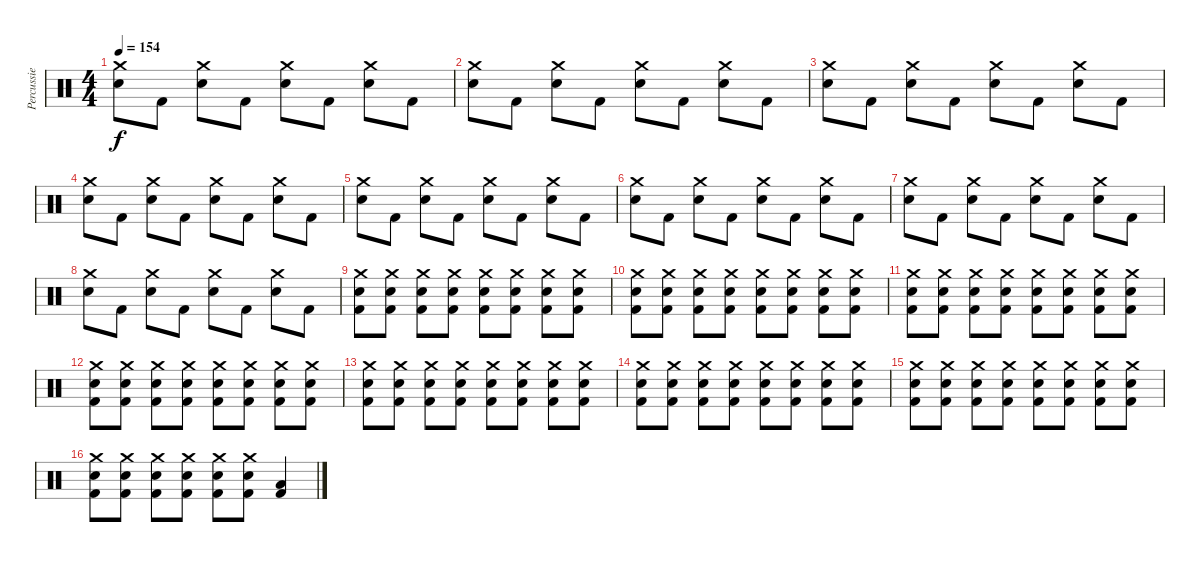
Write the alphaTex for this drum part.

\track ("Percussie" "Percussie") {instrument percussion}
\staff {score}
\articulation defaults
\ts (4 4)
\tempo 154
\clef neutral
\ks c
("Crash medium (hit)" "Snare (hit) 2").8{dy f} "Kick (hit) 2".8 ("Crash medium (hit)" "Snare (hit) 2").8 "Kick (hit) 2".8 ("Crash medium (hit)" "Snare (hit) 2").8 "Kick (hit) 2".8 ("Crash medium (hit)" "Snare (hit) 2").8 "Kick (hit) 2".8 |
("Crash medium (hit)" "Snare (hit) 2").8 "Kick (hit) 2".8 ("Crash medium (hit)" "Snare (hit) 2").8 "Kick (hit) 2".8 ("Crash medium (hit)" "Snare (hit) 2").8 "Kick (hit) 2".8 ("Crash medium (hit)" "Snare (hit) 2").8 "Kick (hit) 2".8 |
("Crash medium (hit)" "Snare (hit) 2").8 "Kick (hit) 2".8 ("Crash medium (hit)" "Snare (hit) 2").8 "Kick (hit) 2".8 ("Crash medium (hit)" "Snare (hit) 2").8 "Kick (hit) 2".8 ("Crash medium (hit)" "Snare (hit) 2").8 "Kick (hit) 2".8 |
("Crash medium (hit)" "Snare (hit) 2").8 "Kick (hit) 2".8 ("Crash medium (hit)" "Snare (hit) 2").8 "Kick (hit) 2".8 ("Crash medium (hit)" "Snare (hit) 2").8 "Kick (hit) 2".8 ("Crash medium (hit)" "Snare (hit) 2").8 "Kick (hit) 2".8 |
("Crash medium (hit)" "Snare (hit) 2").8 "Kick (hit) 2".8 ("Crash medium (hit)" "Snare (hit) 2").8 "Kick (hit) 2".8 ("Crash medium (hit)" "Snare (hit) 2").8 "Kick (hit) 2".8 ("Crash medium (hit)" "Snare (hit) 2").8 "Kick (hit) 2".8 |
("Crash medium (hit)" "Snare (hit) 2").8 "Kick (hit) 2".8 ("Crash medium (hit)" "Snare (hit) 2").8 "Kick (hit) 2".8 ("Crash medium (hit)" "Snare (hit) 2").8 "Kick (hit) 2".8 ("Crash medium (hit)" "Snare (hit) 2").8 "Kick (hit) 2".8 |
("Crash medium (hit)" "Snare (hit) 2").8 "Kick (hit) 2".8 ("Crash medium (hit)" "Snare (hit) 2").8 "Kick (hit) 2".8 ("Crash medium (hit)" "Snare (hit) 2").8 "Kick (hit) 2".8 ("Crash medium (hit)" "Snare (hit) 2").8 "Kick (hit) 2".8 |
("Crash medium (hit)" "Snare (hit) 2").8 "Kick (hit) 2".8 ("Crash medium (hit)" "Snare (hit) 2").8 "Kick (hit) 2".8 ("Crash medium (hit)" "Snare (hit) 2").8 "Kick (hit) 2".8 ("Crash medium (hit)" "Snare (hit) 2").8 "Kick (hit) 2".8 |
("Crash medium (hit)" "Snare (hit) 2" "Kick (hit) 2").8 ("Crash medium (hit)" "Snare (hit) 2" "Kick (hit) 2").8 ("Crash medium (hit)" "Snare (hit) 2" "Kick (hit) 2").8 ("Crash medium (hit)" "Snare (hit) 2" "Kick (hit) 2").8 ("Crash medium (hit)" "Snare (hit) 2" "Kick (hit) 2").8 ("Crash medium (hit)" "Snare (hit) 2" "Kick (hit) 2").8 ("Crash medium (hit)" "Snare (hit) 2" "Kick (hit) 2").8 ("Crash medium (hit)" "Snare (hit) 2" "Kick (hit) 2").8 |
("Crash medium (hit)" "Snare (hit) 2" "Kick (hit) 2").8 ("Crash medium (hit)" "Snare (hit) 2" "Kick (hit) 2").8 ("Crash medium (hit)" "Snare (hit) 2" "Kick (hit) 2").8 ("Crash medium (hit)" "Snare (hit) 2" "Kick (hit) 2").8 ("Crash medium (hit)" "Snare (hit) 2" "Kick (hit) 2").8 ("Crash medium (hit)" "Snare (hit) 2" "Kick (hit) 2").8 ("Crash medium (hit)" "Snare (hit) 2" "Kick (hit) 2").8 ("Crash medium (hit)" "Snare (hit) 2" "Kick (hit) 2").8 |
("Crash medium (hit)" "Snare (hit) 2" "Kick (hit) 2").8 ("Crash medium (hit)" "Snare (hit) 2" "Kick (hit) 2").8 ("Crash medium (hit)" "Snare (hit) 2" "Kick (hit) 2").8 ("Crash medium (hit)" "Snare (hit) 2" "Kick (hit) 2").8 ("Crash medium (hit)" "Snare (hit) 2" "Kick (hit) 2").8 ("Crash medium (hit)" "Snare (hit) 2" "Kick (hit) 2").8 ("Crash medium (hit)" "Snare (hit) 2" "Kick (hit) 2").8 ("Crash medium (hit)" "Snare (hit) 2" "Kick (hit) 2").8 |
("Crash medium (hit)" "Snare (hit) 2" "Kick (hit) 2").8 ("Crash medium (hit)" "Snare (hit) 2" "Kick (hit) 2").8 ("Crash medium (hit)" "Snare (hit) 2" "Kick (hit) 2").8 ("Crash medium (hit)" "Snare (hit) 2" "Kick (hit) 2").8 ("Crash medium (hit)" "Snare (hit) 2" "Kick (hit) 2").8 ("Crash medium (hit)" "Snare (hit) 2" "Kick (hit) 2").8 ("Crash medium (hit)" "Snare (hit) 2" "Kick (hit) 2").8 ("Crash medium (hit)" "Snare (hit) 2" "Kick (hit) 2").8 |
("Crash medium (hit)" "Snare (hit) 2" "Kick (hit) 2").8 ("Crash medium (hit)" "Snare (hit) 2" "Kick (hit) 2").8 ("Crash medium (hit)" "Snare (hit) 2" "Kick (hit) 2").8 ("Crash medium (hit)" "Snare (hit) 2" "Kick (hit) 2").8 ("Crash medium (hit)" "Snare (hit) 2" "Kick (hit) 2").8 ("Crash medium (hit)" "Snare (hit) 2" "Kick (hit) 2").8 ("Crash medium (hit)" "Snare (hit) 2" "Kick (hit) 2").8 ("Crash medium (hit)" "Snare (hit) 2" "Kick (hit) 2").8 |
("Crash medium (hit)" "Snare (hit) 2" "Kick (hit) 2").8 ("Crash medium (hit)" "Snare (hit) 2" "Kick (hit) 2").8 ("Crash medium (hit)" "Snare (hit) 2" "Kick (hit) 2").8 ("Crash medium (hit)" "Snare (hit) 2" "Kick (hit) 2").8 ("Crash medium (hit)" "Snare (hit) 2" "Kick (hit) 2").8 ("Crash medium (hit)" "Snare (hit) 2" "Kick (hit) 2").8 ("Crash medium (hit)" "Snare (hit) 2" "Kick (hit) 2").8 ("Crash medium (hit)" "Snare (hit) 2" "Kick (hit) 2").8 |
("Crash medium (hit)" "Snare (hit) 2" "Kick (hit) 2").8 ("Crash medium (hit)" "Snare (hit) 2" "Kick (hit) 2").8 ("Crash medium (hit)" "Snare (hit) 2" "Kick (hit) 2").8 ("Crash medium (hit)" "Snare (hit) 2" "Kick (hit) 2").8 ("Crash medium (hit)" "Snare (hit) 2" "Kick (hit) 2").8 ("Crash medium (hit)" "Snare (hit) 2" "Kick (hit) 2").8 ("Crash medium (hit)" "Snare (hit) 2" "Kick (hit) 2").8 ("Crash medium (hit)" "Snare (hit) 2" "Kick (hit) 2").8 |
("Crash medium (hit)" "Snare (hit) 2" "Kick (hit) 2").8 ("Crash medium (hit)" "Snare (hit) 2" "Kick (hit) 2").8 ("Crash medium (hit)" "Snare (hit) 2" "Kick (hit) 2").8 ("Crash medium (hit)" "Snare (hit) 2" "Kick (hit) 2").8 ("Crash medium (hit)" "Snare (hit) 2" "Kick (hit) 2").8 ("Crash medium (hit)" "Snare (hit) 2" "Kick (hit) 2").8 ("Low Tom (hit)" "Kick (hit) 2").4
